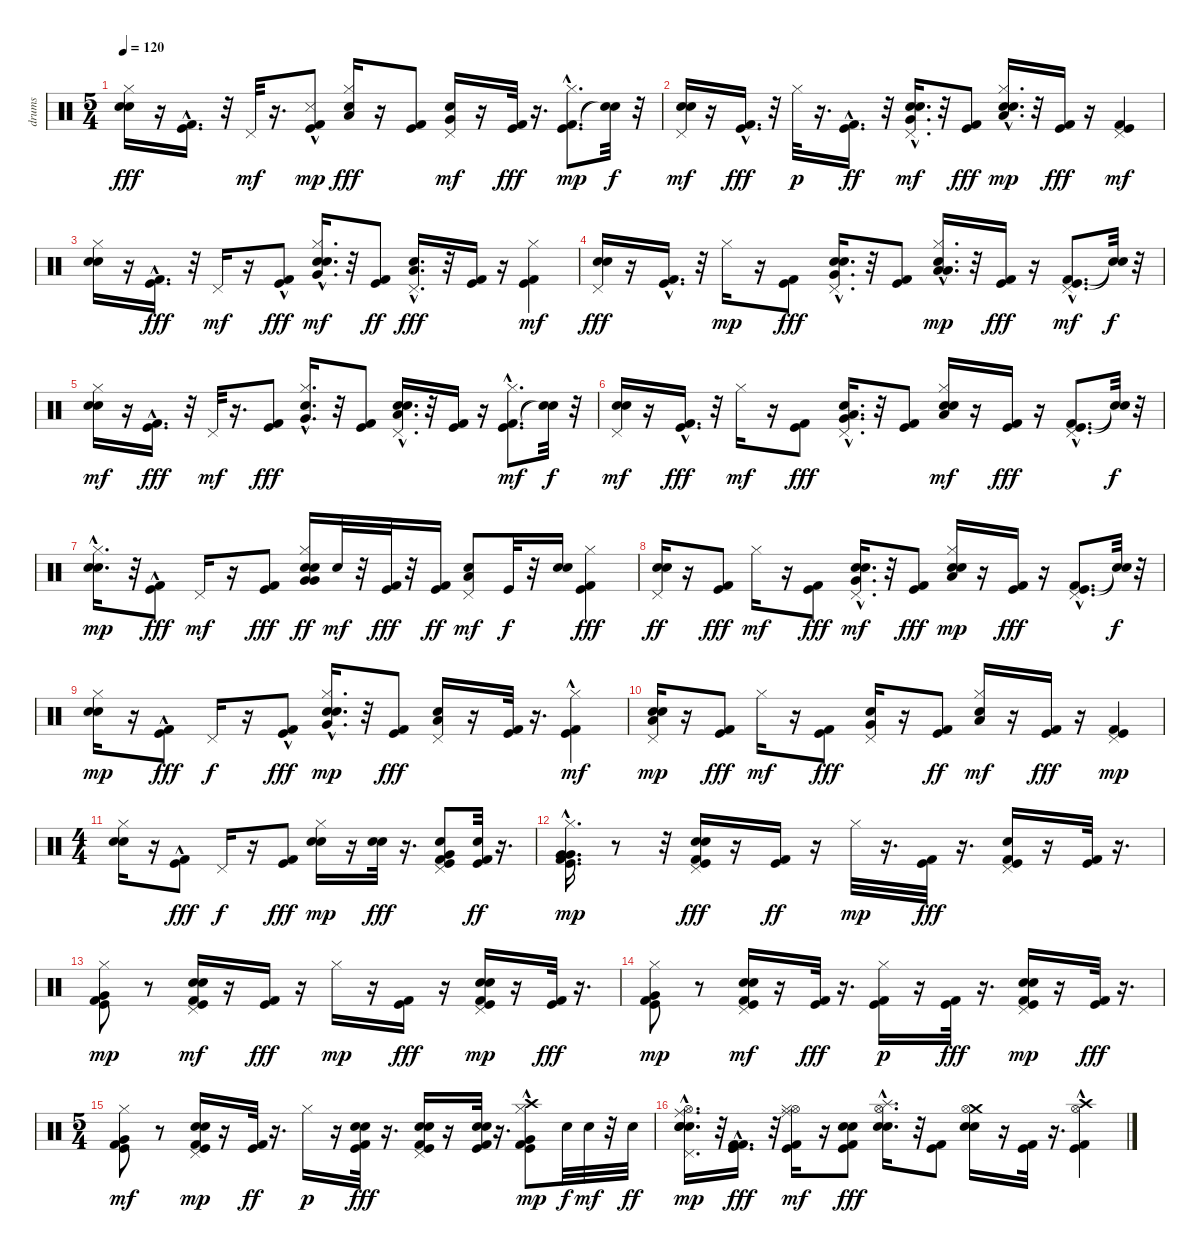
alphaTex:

\track ("drums" "drums") {instrument percussion}
\staff {score}
\articulation defaults
\ts (5 4)
\tempo 120
\clef neutral
\ks c
("Snare (hit) 2" "Electric Snare (hit)" "Hi-Hat (closed)").16{dy fff} r.16 ("Kick (hit)"{hac} "Kick (hit) 2"{hac}).16{d} r.32 "Pedal Hi-Hat (hit)".32{dy mf} r.16{d} ("Kick (hit) 2" "Kick (hit)" "Metronome (hit)"{hac}).8{dy mp} ("Hi-Hat (closed)" "Snare (hit) 2" "Low Floor Tom (hit)").16{dy fff} r.16 ("Kick (hit)" "Kick (hit) 2").8 ("Very Low Tom (hit)" "Snare (hit) 2" "Pedal Hi-Hat (hit)").16{dy mf} r.16 ("Kick (hit) 2" "Kick (hit)").32{dy fff} r.16{d} ("Kick (hit) 2"{hac} "Kick (hit)"{hac} "Hi-Hat (closed)").8{d dy mp} ("Snare (hit)"{t} "Snare (hit)"{t}).32{dy f} r.32 |
("Snare (hit) 2" "Electric Snare (hit)" "Pedal Hi-Hat (hit)").16{dy mf} r.16 ("Kick (hit)"{hac} "Kick (hit) 2"{hac}).16{d dy fff} r.32 "Hi-Hat (closed)".32{dy p} r.16{d} ("Kick (hit)"{hac} "Kick (hit) 2"{hac}).16{d dy ff} r.32 ("Electric Snare (hit)" "Very Low Tom (hit)"{hac} "Snare (hit) 2"{hac} "Pedal Hi-Hat (hit)").16{d dy mf} r.32 ("Kick (hit) 2" "Kick (hit)").8{dy fff} ("Electric Snare (hit)" "Low Tom (hit)"{hac} "Snare (hit) 2"{hac} "Hi-Hat (closed)").16{d dy mp} r.32 ("Kick (hit) 2" "Kick (hit)").16{dy fff} r.16 ("Kick (hit) 2" "Kick (hit)" "Pedal Hi-Hat (hit)").4{dy mf} |
("Electric Snare (hit)" "Snare (hit) 2" "Hi-Hat (closed)").16 r.16 ("Kick (hit) 2"{hac} "Kick (hit)"{hac}).16{d dy fff} r.32 "Pedal Hi-Hat (hit)".16{dy mf} r.16 ("Kick (hit) 2"{hac} "Kick (hit)").8{dy fff} ("Electric Snare (hit)" "Very Low Tom (hit)"{hac} "Snare (hit) 2"{hac} "Hi-Hat (closed)").16{d dy mf} r.32 ("Kick (hit) 2" "Kick (hit)").8{dy ff} ("Low Tom (hit)"{hac} "Snare (hit) 2" "Pedal Hi-Hat (hit)").16{d dy fff} r.32 ("Kick (hit)" "Kick (hit) 2").16 r.16 ("Kick (hit) 2" "Kick (hit)" "Hi-Hat (closed)").4{dy mf} |
("Snare (hit) 2" "Electric Snare (hit)" "Pedal Hi-Hat (hit)").16{dy fff} r.16 ("Kick (hit) 2"{hac} "Kick (hit)"{hac}).16{d} r.32 "Hi-Hat (closed)".16{dy mp} r.16 ("Kick (hit)" "Kick (hit) 2").8{dy fff} ("Pedal Hi-Hat (hit)" "Electric Snare (hit)" "Snare (hit) 2"{hac} "Very Low Tom (hit)"{hac}).16{d} r.32 ("Kick (hit) 2" "Kick (hit)").8 ("Low Floor Tom (hit)" "Snare (hit) 2"{hac} "Low Tom (hit)"{hac} "Hi-Hat (closed)").16{d dy mp} r.32 ("Kick (hit)" "Kick (hit) 2").16{dy fff} r.16 ("Kick (hit) 2"{hac} "Kick (hit)"{hac} "Pedal Hi-Hat (hit)").8{d dy mf} ("Snare (hit)"{t} "Snare (hit)"{t}).32{dy f} r.32 |
("Electric Snare (hit)" "Snare (hit) 2" "Hi-Hat (closed)").16{dy mf} r.16 ("Kick (hit) 2"{hac} "Kick (hit)"{hac}).16{d dy fff} r.32 "Pedal Hi-Hat (hit)".32{dy mf} r.16{d} ("Kick (hit) 2" "Kick (hit)").8{dy fff} ("Hi-Hat (closed)" "Snare (hit) 2"{hac} "Very Low Tom (hit)"{hac}).16{d} r.32 ("Kick (hit) 2" "Kick (hit)").8 ("Pedal Hi-Hat (hit)" "Electric Snare (hit)" "Low Tom (hit)"{hac} "Snare (hit) 2"{hac}).16{d} r.32 ("Kick (hit) 2" "Kick (hit)").16 r.16 ("Kick (hit) 2"{hac} "Kick (hit)"{hac} "Hi-Hat (closed)").8{d dy mf} ("Snare (hit)"{t} "Snare (hit)"{t}).32{dy f} r.32 |
("Electric Snare (hit)" "Snare (hit) 2" "Pedal Hi-Hat (hit)").16{dy mf} r.16 ("Kick (hit) 2"{hac} "Kick (hit)").16{d dy fff} r.32 "Hi-Hat (closed)".16{dy mf} r.16 ("Kick (hit)" "Kick (hit) 2").8{dy fff} ("Snare (hit) 2"{hac} "Very Low Tom (hit)"{hac} "Low Floor Tom (hit)" "Pedal Hi-Hat (hit)").16{d} r.32 ("Kick (hit) 2" "Kick (hit)").8 ("Low Tom (hit)" "Snare (hit) 2" "Electric Snare (hit)" "Hi-Hat (closed)").16{dy mf} r.16 ("Kick (hit)" "Kick (hit) 2").16{dy fff} r.16 ("Kick (hit)"{hac} "Kick (hit) 2"{hac} "Pedal Hi-Hat (hit)").8{d} ("Snare (hit)"{t} "Snare (hit)"{t}).32{dy f} r.32 |
("Snare (hit) 2" "Electric Snare (hit)"{hac} "Hi-Hat (closed)").16{d dy mp} r.32 ("Kick (hit) 2"{hac} "Kick (hit)").8{dy fff} "Pedal Hi-Hat (hit)".16{dy mf} r.16 ("Kick (hit) 2" "Kick (hit)").8{dy fff} ("Hi-Hat (closed)" "Electric Snare (hit)" "Very Low Tom (hit)" "Snare (hit) 2" "Very Low Tom (hit)").16{dy ff} "Snare (hit) 2".32{dy mf} r.32 ("Kick (hit) 2" "Kick (hit)").32{dy fff} r.32 ("Kick (hit)" "Kick (hit) 2").16{dy ff} ("Snare (hit) 2" "Low Tom (hit)" "Pedal Hi-Hat (hit)").8{dy mf} "Kick (hit)".32{dy f} r.32 ("Snare (hit) 2" "Electric Snare (hit)").16 ("Hi-Hat (closed)" "Kick (hit) 2" "Kick (hit)").4{dy fff} |
("Electric Snare (hit)" "Snare (hit) 2" "Pedal Hi-Hat (hit)").16{dy ff} r.16 ("Kick (hit) 2" "Kick (hit)").8{dy fff} "Hi-Hat (closed)".16{dy mf} r.16 ("Kick (hit)" "Kick (hit) 2").8{dy fff} ("Electric Snare (hit)" "Very Low Tom (hit)"{hac} "Snare (hit) 2"{hac} "Pedal Hi-Hat (hit)").16{d dy mf} r.32 ("Kick (hit) 2" "Kick (hit)").8{dy fff} ("Electric Snare (hit)" "Low Tom (hit)" "Snare (hit) 2" "Hi-Hat (closed)").16{dy mp} r.16 ("Kick (hit)" "Kick (hit) 2").16{dy fff} r.16 ("Kick (hit) 2"{hac} "Kick (hit)"{hac} "Pedal Hi-Hat (hit)").8{d} ("Snare (hit)"{t} "Snare (hit)"{t}).32{dy f} r.32 |
("Electric Snare (hit)" "Snare (hit) 2" "Hi-Hat (closed)").16{dy mp} r.16 ("Kick (hit) 2"{hac} "Kick (hit)").8{dy fff} "Pedal Hi-Hat (hit)".16{dy f} r.16 ("Kick (hit) 2"{hac} "Kick (hit)").8{dy fff} ("Electric Snare (hit)" "Very Low Tom (hit)"{hac} "Snare (hit) 2"{hac} "Hi-Hat (closed)").16{d dy mp} r.32 ("Kick (hit)" "Kick (hit) 2").8{dy fff} ("Low Tom (hit)" "Snare (hit) 2" "Pedal Hi-Hat (hit)").16 r.16 ("Kick (hit) 2" "Kick (hit)").32 r.16{d} ("Kick (hit) 2"{hac} "Kick (hit)" "Hi-Hat (closed)").4{dy mf} |
("Low Floor Tom (hit)" "Electric Snare (hit)" "Snare (hit) 2" "Pedal Hi-Hat (hit)").16{dy mp} r.16 ("Kick (hit) 2" "Kick (hit)").8{dy fff} "Hi-Hat (closed)".16{dy mf} r.16 ("Kick (hit) 2" "Kick (hit)").8{dy fff} ("Snare (hit) 2" "Very Low Tom (hit)" "Pedal Hi-Hat (hit)").16 r.16 ("Kick (hit)" "Kick (hit) 2").8{dy ff} ("Low Tom (hit)" "Snare (hit) 2" "Hi-Hat (closed)").16{dy mf} r.16 ("Kick (hit)" "Kick (hit) 2").16{dy fff} r.16 ("Kick (hit) 2" "Kick (hit)" "Pedal Hi-Hat (hit)").4{dy mp} |
\ts (4 4)
("Snare (hit) 2" "Electric Snare (hit)" "Hi-Hat (closed)").16 r.16 ("Kick (hit) 2"{hac} "Kick (hit)").8{dy fff} "Pedal Hi-Hat (hit)".16{dy f} r.16 ("Kick (hit)" "Kick (hit) 2").8{dy fff} ("Snare (hit) 2" "Electric Snare (hit)" "Hi-Hat (closed)").16{dy mp} r.16 ("Snare (hit) 2" "Electric Snare (hit)").32{dy fff} r.16{d} ("Kick (hit)" "Kick (hit) 2" "Snare (hit) 2" "Very Low Tom (hit)" "Pedal Hi-Hat (hit)").8 ("Kick (hit) 2" "Kick (hit)" "Snare (hit) 2").32{dy ff} r.16{d} |
("Very Low Tom (hit)" "Very Low Tom (hit)" "Kick (hit) 2"{hac} "Kick (hit)"{hac} "Hi-Hat (closed)").16{d dy mp} r.8 r.32 ("Pedal Hi-Hat (hit)" "Electric Snare (hit)" "Snare (hit) 2" "Kick (hit) 2" "Kick (hit)").16{dy fff} r.16 ("Kick (hit)" "Kick (hit) 2").16{dy ff} r.16 "Hi-Hat (closed)".32{dy mp} r.16{d} ("Kick (hit) 2" "Kick (hit)").32{dy fff} r.16{d} ("Pedal Hi-Hat (hit)" "Snare (hit) 2" "Kick (hit)" "Kick (hit) 2").16 r.16 ("Kick (hit)" "Kick (hit) 2").32 r.16{d} |
("Very Low Tom (hit)" "Kick (hit)" "Kick (hit) 2" "Hi-Hat (closed)").8{dy mp} r.8 ("Electric Snare (hit)" "Snare (hit) 2" "Kick (hit)" "Kick (hit) 2" "Pedal Hi-Hat (hit)").16{dy mf} r.16 ("Kick (hit)" "Kick (hit) 2").16{dy fff} r.16 "Hi-Hat (closed)".16{dy mp} r.16 ("Kick (hit) 2" "Kick (hit)").16{dy fff} r.16 ("Snare (hit) 2" "Electric Snare (hit)" "Kick (hit) 2" "Kick (hit)" "Pedal Hi-Hat (hit)").16{dy mp} r.16 ("Kick (hit)" "Kick (hit) 2").32{dy fff} r.16{d} |
("Kick (hit) 2" "Kick (hit)" "Very Low Tom (hit)" "Hi-Hat (closed)").8{dy mp} r.8 ("Snare (hit) 2" "Electric Snare (hit)" "Kick (hit) 2" "Kick (hit)" "Pedal Hi-Hat (hit)").16{dy mf} r.16 ("Kick (hit)" "Kick (hit) 2").32{dy fff} r.16{d} ("Kick (hit)" "Kick (hit) 2" "Hi-Hat (closed)").16{dy p} r.16 ("Kick (hit)" "Kick (hit) 2").32{dy fff} r.16{d} ("Electric Snare (hit)" "Snare (hit) 2" "Kick (hit) 2" "Kick (hit)" "Pedal Hi-Hat (hit)").16{dy mp} r.16 ("Kick (hit) 2" "Kick (hit)").32{dy fff} r.16{d} |
\ts (5 4)
("Kick (hit) 2" "Kick (hit)" "Very Low Tom (hit)" "Hi-Hat (closed)").8{dy mf} r.8 ("Kick (hit) 2" "Kick (hit)" "Snare (hit) 2" "Electric Snare (hit)" "Pedal Hi-Hat (hit)").16{dy mp} r.16 ("Kick (hit) 2" "Kick (hit)").32{dy ff} r.16{d} "Hi-Hat (closed)".16{dy p} r.16 ("Electric Snare (hit)" "Snare (hit) 2" "Kick (hit)" "Kick (hit) 2").32{dy fff} r.16{d} ("Kick (hit) 2" "Snare (hit) 2" "Kick (hit)" "Electric Snare (hit)" "Pedal Hi-Hat (hit)").16 r.16 ("Snare (hit) 2" "Electric Snare (hit)" "Kick (hit) 2" "Kick (hit)").32 r.16{d} ("Very Low Tom (hit)" "Crash high (hit)"{hac} "Kick (hit) 2"{hac} "Kick (hit)"{hac} "Hi-Hat (closed)").8{dy mp} "Electric Snare (hit)".32{dy f} "Snare (hit) 2".32{dy mf} r.32 "Electric Snare (hit)".32{dy ff} |
("Snare (hit) 2" "Hi-Hat (open)"{hac} "Ride (middle)" "Snare (hit) 2" "Electric Snare (hit)" "Pedal Hi-Hat (hit)").16{d dy mp} r.32 ("Kick (hit) 2"{hac} "Kick (hit)"{hac} "Kick (hit) 2"{hac} "Kick (hit)"{hac}).16{d dy fff} r.32 ("Kick (hit)" "Kick (hit) 2" "Hi-Hat (open)" "Ride (middle)" "Hi-Hat (closed)").16{dy mf} r.16 ("Electric Snare (hit)" "Snare (hit) 2" "Kick (hit)" "Kick (hit) 2").8{dy fff} ("Hi-Hat (open)" "Splash (hit)" "Electric Snare (hit)"{hac} "Snare (hit) 2").16{d} r.32 ("Kick (hit) 2" "Kick (hit)").8 ("Crash medium (hit)" "Hi-Hat (open)" "Electric Snare (hit)" "Snare (hit) 2").16 r.16 ("Kick (hit) 2" "Kick (hit)").32 r.16{d} ("Hi-Hat (open)" "Crash high (hit)" "Kick (hit) 2"{hac} "Kick (hit)").4
